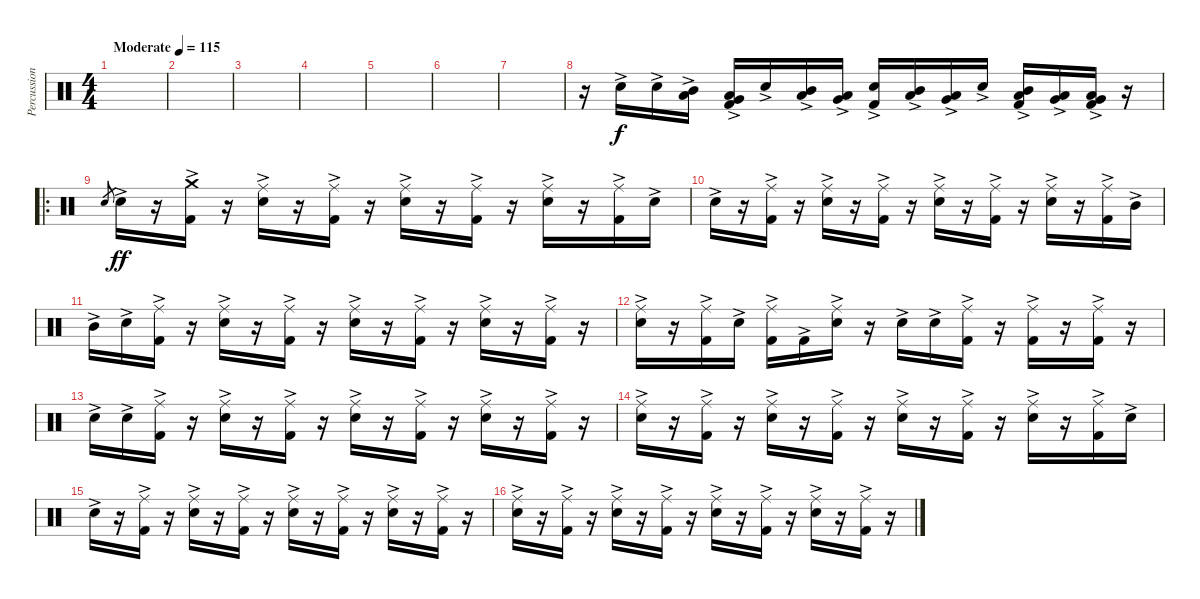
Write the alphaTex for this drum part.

\track ("Percussion" "Percussion") {instrument percussion}
\staff {score}
\articulation defaults
\ts (4 4)
\tempo (115 "Moderate")
\clef neutral
\ks c
|
|
|
|
|
|
|
r.16 "Snare (hit) 2"{ac}.16 "Snare (hit) 2"{ac}.16 ("Low Tom (hit)"{ac} "Mid Tom (hit)"{ac}).16 ("Very Low Tom (hit)"{ac} "Low Tom (hit)"{ac} "Kick (hit) 2"{ac}).16 "Snare (hit) 2"{ac}.16 ("Low Tom (hit)"{ac} "Mid Tom (hit)"{ac}).16 ("Very Low Tom (hit)"{ac} "Low Tom (hit)"{ac}).16 ("Snare (hit) 2"{ac} "Kick (hit) 2"{ac}).16 ("Low Tom (hit)"{ac} "Mid Tom (hit)"{ac}).16 ("Very Low Tom (hit)"{ac} "Low Tom (hit)"{ac}).16 "Snare (hit) 2"{ac}.16 ("Low Tom (hit)"{ac} "Mid Tom (hit)"{ac} "Kick (hit) 2"{ac}).16 ("Very Low Tom (hit)"{ac} "Low Tom (hit)"{ac}).16 ("Low Tom (hit)"{ac} "Very Low Tom (hit)"{ac} "Kick (hit) 2"{ac}).16 r.16 |
\ro "Snare (hit) 2".8{gr dy f} "Snare (hit) 2"{ac}.16{dy ff}
r.16 ("Crash medium (hit)"{ac} "Kick (hit) 2"{ac}).16 r.16 ("Ride (middle)"{ac} "Snare (hit) 2"{ac}).16 r.16 ("Ride (middle)"{ac} "Kick (hit) 2"{ac}).16 r.16 ("Ride (middle)"{ac} "Snare (hit) 2"{ac}).16 r.16 ("Ride (middle)"{ac} "Kick (hit) 2"{ac}).16 r.16 ("Ride (middle)"{ac} "Snare (hit) 2"{ac}).16 r.16 ("Ride (middle)"{ac} "Kick (hit) 2"{ac}).16 "Snare (hit) 2"{ac}.16 |
"Snare (hit) 2"{ac}.16 r.16 ("Ride (middle)"{ac} "Kick (hit) 2"{ac}).16 r.16 ("Ride (middle)"{ac} "Snare (hit) 2"{ac}).16 r.16 ("Ride (middle)"{ac} "Kick (hit) 2"{ac}).16 r.16 ("Ride (middle)"{ac} "Snare (hit) 2"{ac}).16 r.16 ("Ride (middle)"{ac} "Kick (hit) 2"{ac}).16 r.16 ("Ride (middle)"{ac} "Snare (hit) 2"{ac}).16 r.16 ("Ride (middle)"{ac} "Kick (hit) 2"{ac}).16 "Mid Tom (hit)"{ac}.16 |
"Mid Tom (hit)"{ac}.16 "Snare (hit) 2"{ac}.16 ("Ride (middle)"{ac} "Kick (hit) 2"{ac}).16 r.16 ("Ride (middle)"{ac} "Snare (hit) 2"{ac}).16 r.16 ("Ride (middle)"{ac} "Kick (hit) 2"{ac}).16 r.16 ("Ride (middle)"{ac} "Snare (hit) 2"{ac}).16 r.16 ("Ride (middle)"{ac} "Kick (hit) 2"{ac}).16 r.16 ("Ride (middle)"{ac} "Snare (hit) 2"{ac}).16 r.16 ("Ride (middle)"{ac} "Kick (hit) 2"{ac}).16 r.16 |
("Ride (middle)"{ac} "Snare (hit) 2"{ac}).16 r.16 ("Ride (middle)"{ac} "Kick (hit) 2"{ac}).16 "Snare (hit) 2"{ac}.16 ("Ride (middle)"{ac} "Kick (hit) 2"{ac}).16 "Kick (hit) 2"{ac}.16 ("Ride (middle)"{ac} "Snare (hit) 2"{ac}).16 r.16 "Snare (hit) 2"{ac}.16 "Snare (hit) 2"{ac}.16 ("Ride (middle)"{ac} "Kick (hit) 2"{ac}).16 r.16 ("Ride (middle)"{ac} "Kick (hit) 2"{ac}).16 r.16 ("Ride (middle)"{ac} "Kick (hit) 2"{ac}).16 r.16 |
"Snare (hit) 2"{ac}.16 "Snare (hit) 2"{ac}.16 ("Ride (middle)"{ac} "Kick (hit) 2"{ac}).16 r.16 ("Ride (middle)"{ac} "Snare (hit) 2"{ac}).16 r.16 ("Ride (middle)"{ac} "Kick (hit) 2"{ac}).16 r.16 ("Ride (middle)"{ac} "Snare (hit) 2"{ac}).16 r.16 ("Ride (middle)"{ac} "Kick (hit) 2"{ac}).16 r.16 ("Ride (middle)"{ac} "Snare (hit) 2"{ac}).16 r.16 ("Ride (middle)"{ac} "Kick (hit) 2"{ac}).16 r.16 |
("Ride (middle)"{ac} "Snare (hit) 2"{ac}).16 r.16 ("Ride (middle)"{ac} "Kick (hit) 2"{ac}).16 r.16 ("Ride (middle)"{ac} "Snare (hit) 2"{ac}).16 r.16 ("Ride (middle)"{ac} "Kick (hit) 2"{ac}).16 r.16 ("Ride (middle)"{ac} "Snare (hit) 2"{ac}).16 r.16 ("Ride (middle)"{ac} "Kick (hit) 2"{ac}).16 r.16 ("Ride (middle)"{ac} "Snare (hit) 2"{ac}).16 r.16 ("Ride (middle)"{ac} "Kick (hit) 2"{ac}).16 "Snare (hit) 2"{ac}.16 |
"Snare (hit) 2"{ac}.16 r.16 ("Ride (middle)"{ac} "Kick (hit) 2"{ac}).16 r.16 ("Ride (middle)"{ac} "Snare (hit) 2"{ac}).16 r.16 ("Ride (middle)"{ac} "Kick (hit) 2"{ac}).16 r.16 ("Ride (middle)"{ac} "Snare (hit) 2"{ac}).16 r.16 ("Ride (middle)"{ac} "Kick (hit) 2"{ac}).16 r.16 ("Ride (middle)"{ac} "Snare (hit) 2"{ac}).16 r.16 ("Ride (middle)"{ac} "Kick (hit) 2"{ac}).16 r.16 |
("Ride (middle)"{ac} "Snare (hit) 2"{ac}).16 r.16 ("Ride (middle)"{ac} "Kick (hit) 2"{ac}).16 r.16 ("Ride (middle)"{ac} "Snare (hit) 2"{ac}).16 r.16 ("Ride (middle)"{ac} "Kick (hit) 2"{ac}).16 r.16 ("Ride (middle)"{ac} "Snare (hit) 2"{ac}).16 r.16 ("Ride (middle)"{ac} "Kick (hit) 2"{ac}).16 r.16 ("Ride (middle)"{ac} "Snare (hit) 2"{ac}).16 r.16 ("Ride (middle)"{ac} "Kick (hit) 2"{ac}).16 r.16
